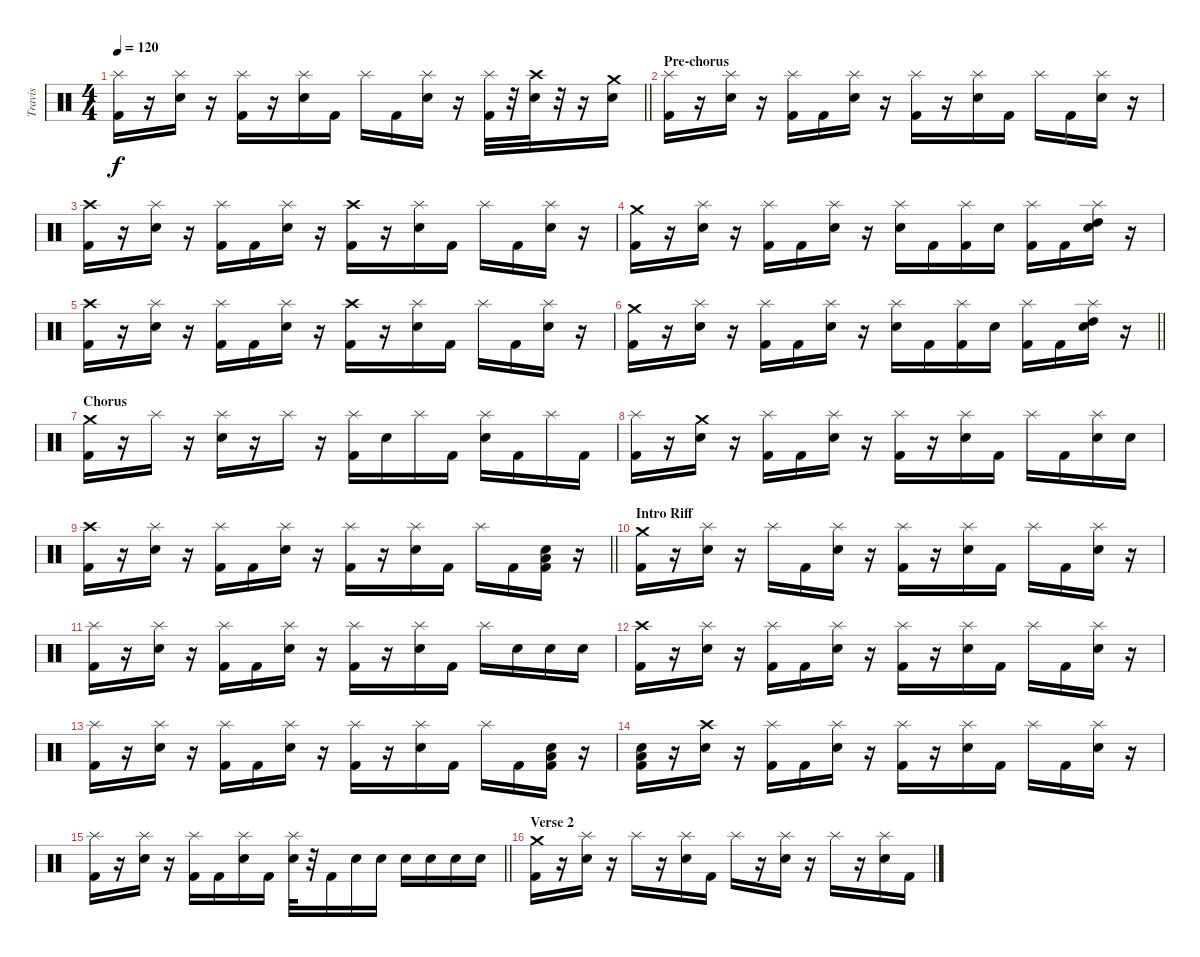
\track ("Travis" "Travis") {instrument percussion}
\staff {score}
\articulation defaults
\ts (4 4)
\tempo 120
\clef neutral
\barLineRight lightlight
\ks c
("Splash (hit)" "Kick (hit) 2").16{dy f} r.16 ("Splash (hit)" "Electric Snare (hit)").16 r.16 ("Splash (hit)" "Kick (hit) 2").16 r.16 ("Splash (hit)" "Electric Snare (hit)").16 "Kick (hit) 2".16 "Splash (hit)".16 "Kick (hit) 2".16 ("Splash (hit)" "Electric Snare (hit)").16 r.16 ("Splash (hit)" "Kick (hit) 2").32 r.32 ("Crash high (hit)" "Electric Snare (hit)").32 r.32 r.16 ("Crash medium (hit)" "Electric Snare (hit)").16 |
\section ("" "Pre-chorus")
("Splash (hit)" "Kick (hit) 2").16 r.16 ("Splash (hit)" "Electric Snare (hit)").16 r.16 ("Splash (hit)" "Kick (hit) 2").16 "Kick (hit) 2".16 ("Splash (hit)" "Electric Snare (hit)").16 r.16 ("Splash (hit)" "Kick (hit) 2").16 r.16 ("Splash (hit)" "Electric Snare (hit)").16 "Kick (hit) 2".16 "Splash (hit)".16 "Kick (hit) 2".16 ("Splash (hit)" "Electric Snare (hit)").16 r.16 |
("Crash high (hit)" "Kick (hit) 2").16 r.16 ("Splash (hit)" "Electric Snare (hit)").16 r.16 ("Splash (hit)" "Kick (hit) 2").16 "Kick (hit) 2".16 ("Splash (hit)" "Electric Snare (hit)").16 r.16 ("Crash high (hit)" "Kick (hit) 2").16 r.16 ("Splash (hit)" "Electric Snare (hit)").16 "Kick (hit) 2".16 "Splash (hit)".16 "Kick (hit) 2".16 ("Splash (hit)" "Electric Snare (hit)").16 r.16 |
("Crash medium (hit)" "Kick (hit) 2").16 r.16 ("Splash (hit)" "Electric Snare (hit)").16 r.16 ("Splash (hit)" "Kick (hit) 2").16 "Kick (hit) 2".16 ("Splash (hit)" "Electric Snare (hit)").16 r.16 ("Splash (hit)" "Electric Snare (hit)").16 "Kick (hit) 2".16 ("Splash (hit)" "Kick (hit) 2").16 "Electric Snare (hit)".16 ("Splash (hit)" "Kick (hit) 2").16 "Kick (hit) 2".16 ("Splash (hit)" "High Tom (hit)" "Electric Snare (hit)").16 r.16 |
("Crash high (hit)" "Kick (hit) 2").16 r.16 ("Splash (hit)" "Electric Snare (hit)").16 r.16 ("Splash (hit)" "Kick (hit) 2").16 "Kick (hit) 2".16 ("Splash (hit)" "Electric Snare (hit)").16 r.16 ("Crash high (hit)" "Kick (hit) 2").16 r.16 ("Splash (hit)" "Electric Snare (hit)").16 "Kick (hit) 2".16 "Splash (hit)".16 "Kick (hit) 2".16 ("Splash (hit)" "Electric Snare (hit)").16 r.16 |
\barLineRight lightlight
("Crash medium (hit)" "Kick (hit) 2").16 r.16 ("Splash (hit)" "Electric Snare (hit)").16 r.16 ("Splash (hit)" "Kick (hit) 2").16 "Kick (hit) 2".16 ("Splash (hit)" "Electric Snare (hit)").16 r.16 ("Splash (hit)" "Electric Snare (hit)").16 "Kick (hit) 2".16 ("Splash (hit)" "Kick (hit) 2").16 "Electric Snare (hit)".16 ("Splash (hit)" "Kick (hit) 2").16 "Kick (hit) 2".16 ("Splash (hit)" "High Tom (hit)" "Electric Snare (hit)").16 r.16 |
\section ("" "Chorus")
("Crash medium (hit)" "Kick (hit) 2").16 r.16 "Splash (hit)".16 r.16 ("Splash (hit)" "Electric Snare (hit)").16 r.16 "Splash (hit)".16 r.16 ("Splash (hit)" "Kick (hit) 2").16 "Electric Snare (hit)".16 "Splash (hit)".16 "Kick (hit) 2".16 ("Splash (hit)" "Electric Snare (hit)").16 "Kick (hit) 2".16 "Splash (hit)".16 "Kick (hit) 2".16 |
("Splash (hit)" "Kick (hit) 2").16 r.16 ("Crash medium (hit)" "Electric Snare (hit)").16 r.16 ("Splash (hit)" "Kick (hit) 2").16 "Kick (hit) 2".16 ("Splash (hit)" "Electric Snare (hit)").16 r.16 ("Splash (hit)" "Kick (hit) 2").16 r.16 ("Splash (hit)" "Electric Snare (hit)").16 "Kick (hit) 2".16 "Splash (hit)".16 "Kick (hit) 2".16 ("Splash (hit)" "Electric Snare (hit)").16 "Electric Snare (hit)".16 |
\barLineRight lightlight
("Crash high (hit)" "Kick (hit) 2").16 r.16 ("Splash (hit)" "Electric Snare (hit)").16 r.16 ("Splash (hit)" "Kick (hit) 2").16 "Kick (hit) 2".16 ("Splash (hit)" "Electric Snare (hit)").16 r.16 ("Splash (hit)" "Kick (hit) 2").16 r.16 ("Splash (hit)" "Electric Snare (hit)").16 "Kick (hit) 2".16 "Splash (hit)".16 "Kick (hit) 2".16 ("Low Floor Tom (hit)" "Electric Snare (hit)" "Kick (hit) 2").16 r.16 |
\section ("" "Intro Riff")
("Crash medium (hit)" "Kick (hit) 2").16 r.16 ("Splash (hit)" "Electric Snare (hit)").16 r.16 "Splash (hit)".16 "Kick (hit) 2".16 ("Splash (hit)" "Electric Snare (hit)").16 r.16 ("Splash (hit)" "Kick (hit) 2").16 r.16 ("Splash (hit)" "Electric Snare (hit)").16 "Kick (hit) 2".16 "Splash (hit)".16 "Kick (hit) 2".16 ("Splash (hit)" "Electric Snare (hit)").16 r.16 |
("Splash (hit)" "Kick (hit) 2").16 r.16 ("Splash (hit)" "Electric Snare (hit)").16 r.16 ("Splash (hit)" "Kick (hit) 2").16 "Kick (hit) 2".16 ("Splash (hit)" "Electric Snare (hit)").16 r.16 ("Splash (hit)" "Kick (hit) 2").16 r.16 ("Splash (hit)" "Electric Snare (hit)").16 "Kick (hit) 2".16 "Splash (hit)".16 "Electric Snare (hit)".16 "Electric Snare (hit)".16 "Electric Snare (hit)".16 |
("Crash high (hit)" "Kick (hit) 2").16 r.16 ("Splash (hit)" "Electric Snare (hit)").16 r.16 ("Splash (hit)" "Kick (hit) 2").16 "Kick (hit) 2".16 ("Splash (hit)" "Electric Snare (hit)").16 r.16 ("Splash (hit)" "Kick (hit) 2").16 r.16 ("Splash (hit)" "Electric Snare (hit)").16 "Kick (hit) 2".16 "Splash (hit)".16 "Kick (hit) 2".16 ("Splash (hit)" "Electric Snare (hit)").16 r.16 |
("Splash (hit)" "Kick (hit) 2").16 r.16 ("Splash (hit)" "Electric Snare (hit)").16 r.16 ("Splash (hit)" "Kick (hit) 2").16 "Kick (hit) 2".16 ("Splash (hit)" "Electric Snare (hit)").16 r.16 ("Splash (hit)" "Kick (hit) 2").16 r.16 ("Splash (hit)" "Electric Snare (hit)").16 "Kick (hit) 2".16 "Splash (hit)".16 "Kick (hit) 2".16 ("Low Floor Tom (hit)" "Electric Snare (hit)" "Kick (hit) 2").16 r.16 |
("Low Floor Tom (hit)" "Electric Snare (hit)" "Kick (hit) 2").16 r.16 ("Crash high (hit)" "Electric Snare (hit)").16 r.16 ("Splash (hit)" "Kick (hit) 2").16 "Kick (hit) 2".16 ("Splash (hit)" "Electric Snare (hit)").16 r.16 ("Splash (hit)" "Kick (hit) 2").16 r.16 ("Splash (hit)" "Electric Snare (hit)").16 "Kick (hit) 2".16 "Splash (hit)".16 "Kick (hit) 2".16 ("Splash (hit)" "Electric Snare (hit)").16 r.16 |
\barLineRight lightlight
("Splash (hit)" "Kick (hit) 2").16 r.16 ("Splash (hit)" "Electric Snare (hit)").16 r.16 ("Splash (hit)" "Kick (hit) 2").16 "Kick (hit) 2".16 ("Splash (hit)" "Electric Snare (hit)").16 "Kick (hit) 2".16 ("Splash (hit)" "Electric Snare (hit)").32 r.32 "Kick (hit) 2".16 "Electric Snare (hit)".16 "Electric Snare (hit)".16 "Electric Snare (hit)".16 "Electric Snare (hit)".16 "Electric Snare (hit)".16 "Electric Snare (hit)".16 |
\section ("" "Verse 2")
("Crash medium (hit)" "Kick (hit) 2").16 r.16 ("Splash (hit)" "Electric Snare (hit)").16 r.16 "Splash (hit)".16 r.16 ("Splash (hit)" "Electric Snare (hit)").16 "Kick (hit) 2".16 "Splash (hit)".16 r.16 ("Splash (hit)" "Electric Snare (hit)").16 r.16 "Splash (hit)".16 r.16 ("Splash (hit)" "Electric Snare (hit)").16 "Kick (hit) 2".16
